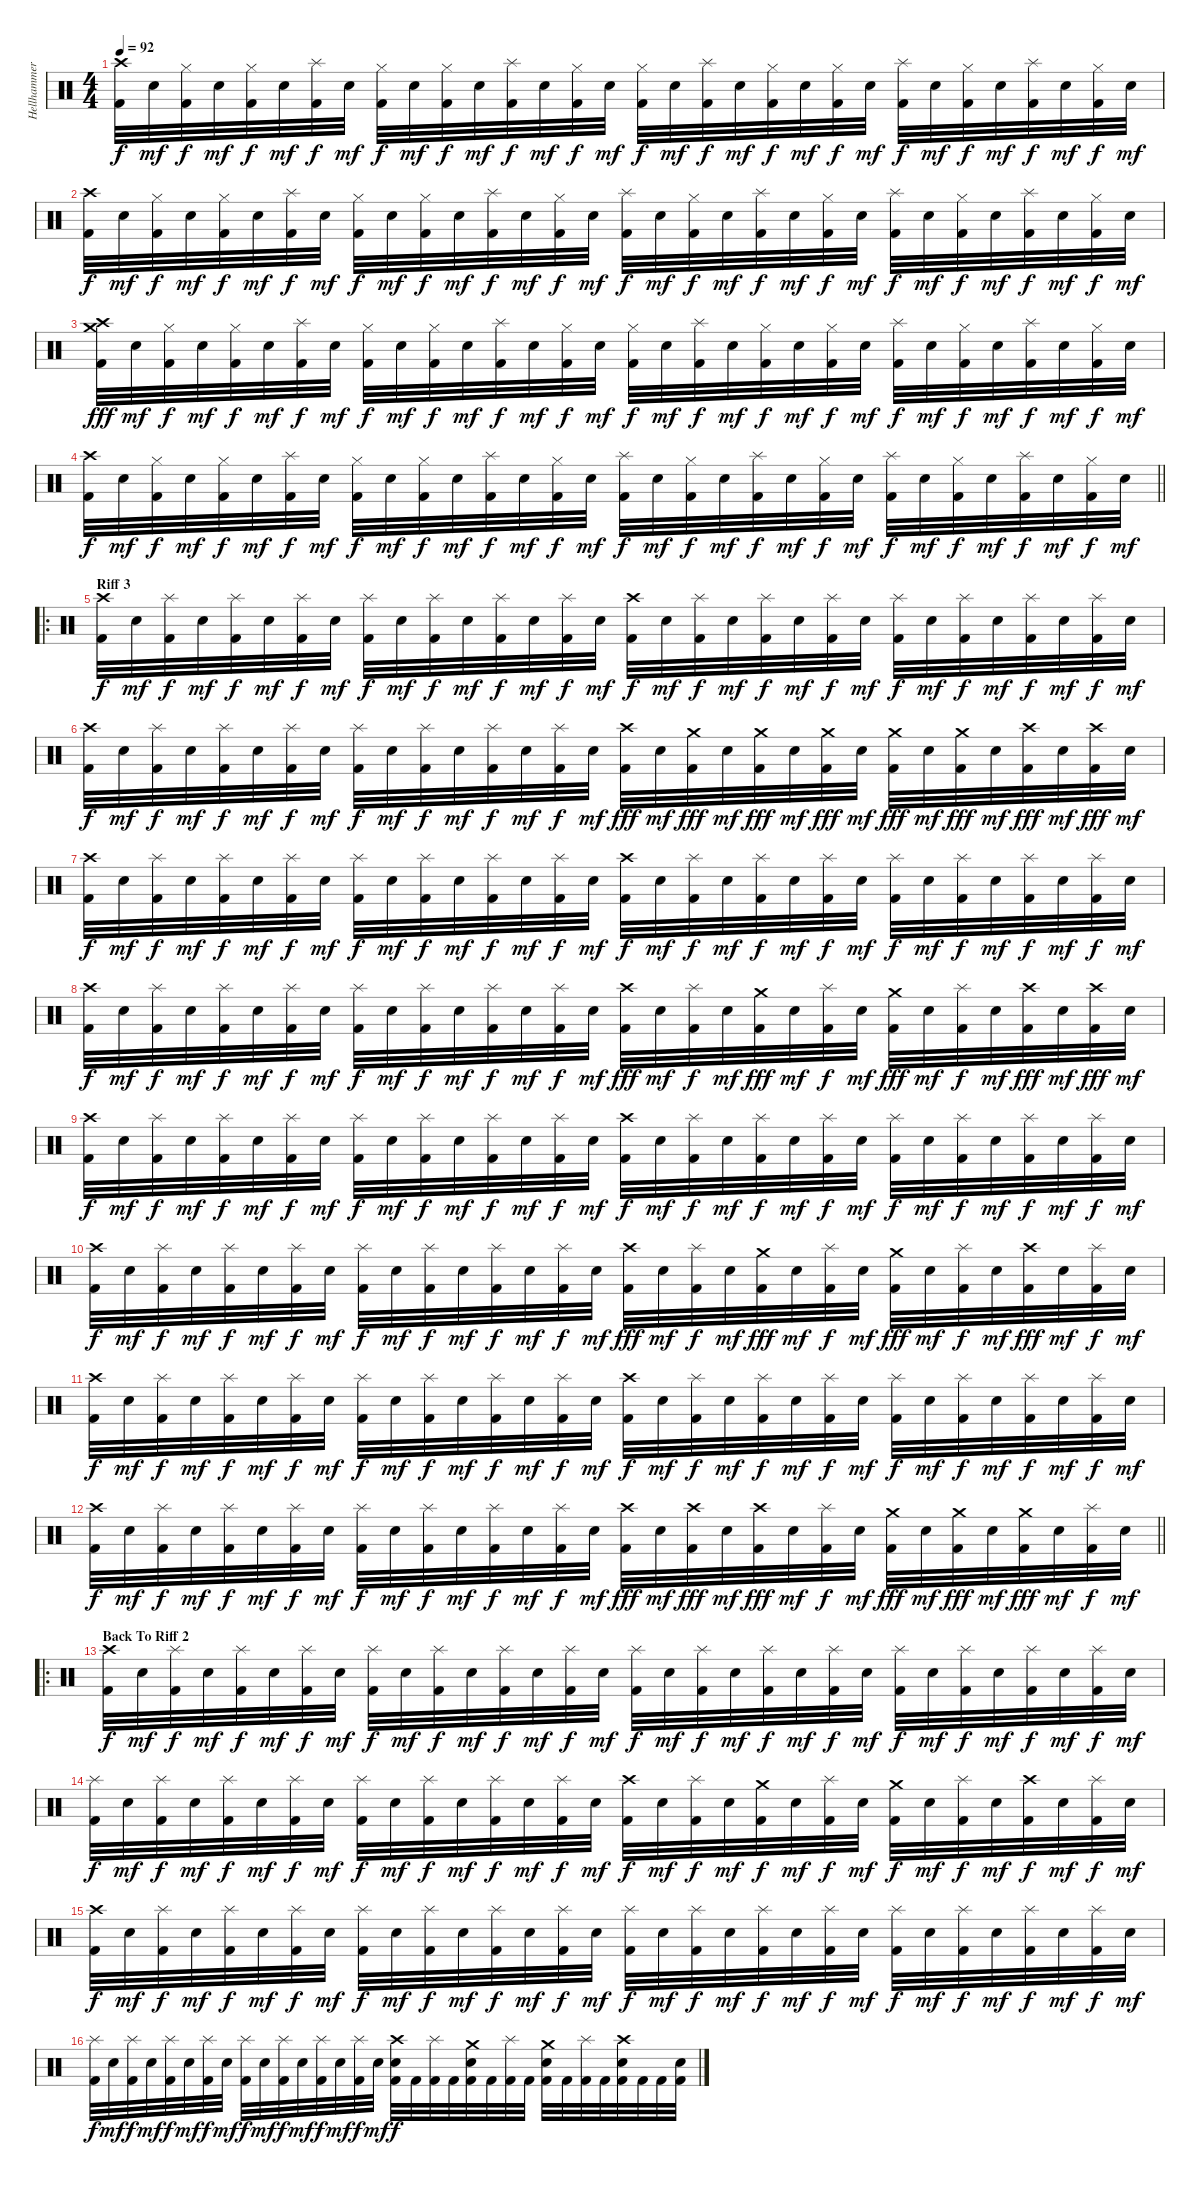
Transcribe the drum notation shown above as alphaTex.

\track ("Hellhammer" "Hellhammer") {instrument percussion}
\staff {score}
\articulation defaults
\ts (4 4)
\tempo 92
\clef neutral
\ks c
("Crash high (hit)" "Kick (hit) 2").32{dy f} "Electric Snare (hit)".32{dy mf} ("Hi-Hat (closed)" "Kick (hit) 2").32{dy f} "Electric Snare (hit)".32{dy mf} ("Hi-Hat (closed)" "Kick (hit) 2").32{dy f} "Electric Snare (hit)".32{dy mf} ("Splash (hit)" "Kick (hit) 2").32{dy f} "Electric Snare (hit)".32{dy mf} ("Hi-Hat (closed)" "Kick (hit) 2").32{dy f} "Electric Snare (hit)".32{dy mf} ("Hi-Hat (closed)" "Kick (hit) 2").32{dy f} "Electric Snare (hit)".32{dy mf} ("Splash (hit)" "Kick (hit) 2").32{dy f} "Electric Snare (hit)".32{dy mf} ("Hi-Hat (closed)" "Kick (hit) 2").32{dy f} "Electric Snare (hit)".32{dy mf} ("Hi-Hat (closed)" "Kick (hit) 2").32{dy f} "Electric Snare (hit)".32{dy mf} ("Splash (hit)" "Kick (hit) 2").32{dy f} "Electric Snare (hit)".32{dy mf} ("Hi-Hat (closed)" "Kick (hit) 2").32{dy f} "Electric Snare (hit)".32{dy mf} ("Hi-Hat (closed)" "Kick (hit) 2").32{dy f} "Electric Snare (hit)".32{dy mf} ("Splash (hit)" "Kick (hit) 2").32{dy f} "Electric Snare (hit)".32{dy mf} ("Hi-Hat (closed)" "Kick (hit) 2").32{dy f} "Electric Snare (hit)".32{dy mf} ("Splash (hit)" "Kick (hit) 2").32{dy f} "Electric Snare (hit)".32{dy mf} ("Hi-Hat (closed)" "Kick (hit) 2").32{dy f} "Electric Snare (hit)".32{dy mf} |
("Crash high (hit)" "Kick (hit) 2").32{dy f} "Electric Snare (hit)".32{dy mf} ("Hi-Hat (closed)" "Kick (hit) 2").32{dy f} "Electric Snare (hit)".32{dy mf} ("Hi-Hat (closed)" "Kick (hit) 2").32{dy f} "Electric Snare (hit)".32{dy mf} ("Splash (hit)" "Kick (hit) 2").32{dy f} "Electric Snare (hit)".32{dy mf} ("Hi-Hat (closed)" "Kick (hit) 2").32{dy f} "Electric Snare (hit)".32{dy mf} ("Hi-Hat (closed)" "Kick (hit) 2").32{dy f} "Electric Snare (hit)".32{dy mf} ("Splash (hit)" "Kick (hit) 2").32{dy f} "Electric Snare (hit)".32{dy mf} ("Hi-Hat (closed)" "Kick (hit) 2").32{dy f} "Electric Snare (hit)".32{dy mf} ("Splash (hit)" "Kick (hit) 2").32{dy f} "Electric Snare (hit)".32{dy mf} ("Hi-Hat (closed)" "Kick (hit) 2").32{dy f} "Electric Snare (hit)".32{dy mf} ("Splash (hit)" "Kick (hit) 2").32{dy f} "Electric Snare (hit)".32{dy mf} ("Hi-Hat (closed)" "Kick (hit) 2").32{dy f} "Electric Snare (hit)".32{dy mf} ("Splash (hit)" "Kick (hit) 2").32{dy f} "Electric Snare (hit)".32{dy mf} ("Hi-Hat (closed)" "Kick (hit) 2").32{dy f} "Electric Snare (hit)".32{dy mf} ("Splash (hit)" "Kick (hit) 2").32{dy f} "Electric Snare (hit)".32{dy mf} ("Hi-Hat (closed)" "Kick (hit) 2").32{dy f} "Electric Snare (hit)".32{dy mf} |
("Crash high (hit)" "Crash medium (hit)" "Kick (hit) 2").32{dy fff} "Electric Snare (hit)".32{dy mf} ("Hi-Hat (closed)" "Kick (hit) 2").32{dy f} "Electric Snare (hit)".32{dy mf} ("Hi-Hat (closed)" "Kick (hit) 2").32{dy f} "Electric Snare (hit)".32{dy mf} ("Splash (hit)" "Kick (hit) 2").32{dy f} "Electric Snare (hit)".32{dy mf} ("Hi-Hat (closed)" "Kick (hit) 2").32{dy f} "Electric Snare (hit)".32{dy mf} ("Hi-Hat (closed)" "Kick (hit) 2").32{dy f} "Electric Snare (hit)".32{dy mf} ("Splash (hit)" "Kick (hit) 2").32{dy f} "Electric Snare (hit)".32{dy mf} ("Hi-Hat (closed)" "Kick (hit) 2").32{dy f} "Electric Snare (hit)".32{dy mf} ("Hi-Hat (closed)" "Kick (hit) 2").32{dy f} "Electric Snare (hit)".32{dy mf} ("Splash (hit)" "Kick (hit) 2").32{dy f} "Electric Snare (hit)".32{dy mf} ("Hi-Hat (closed)" "Kick (hit) 2").32{dy f} "Electric Snare (hit)".32{dy mf} ("Hi-Hat (closed)" "Kick (hit) 2").32{dy f} "Electric Snare (hit)".32{dy mf} ("Splash (hit)" "Kick (hit) 2").32{dy f} "Electric Snare (hit)".32{dy mf} ("Hi-Hat (closed)" "Kick (hit) 2").32{dy f} "Electric Snare (hit)".32{dy mf} ("Splash (hit)" "Kick (hit) 2").32{dy f} "Electric Snare (hit)".32{dy mf} ("Hi-Hat (closed)" "Kick (hit) 2").32{dy f} "Electric Snare (hit)".32{dy mf} |
\barLineRight lightlight
("Crash high (hit)" "Kick (hit) 2").32{dy f} "Electric Snare (hit)".32{dy mf} ("Hi-Hat (closed)" "Kick (hit) 2").32{dy f} "Electric Snare (hit)".32{dy mf} ("Hi-Hat (closed)" "Kick (hit) 2").32{dy f} "Electric Snare (hit)".32{dy mf} ("Splash (hit)" "Kick (hit) 2").32{dy f} "Electric Snare (hit)".32{dy mf} ("Hi-Hat (closed)" "Kick (hit) 2").32{dy f} "Electric Snare (hit)".32{dy mf} ("Hi-Hat (closed)" "Kick (hit) 2").32{dy f} "Electric Snare (hit)".32{dy mf} ("Splash (hit)" "Kick (hit) 2").32{dy f} "Electric Snare (hit)".32{dy mf} ("Hi-Hat (closed)" "Kick (hit) 2").32{dy f} "Electric Snare (hit)".32{dy mf} ("Splash (hit)" "Kick (hit) 2").32{dy f} "Electric Snare (hit)".32{dy mf} ("Hi-Hat (closed)" "Kick (hit) 2").32{dy f} "Electric Snare (hit)".32{dy mf} ("Splash (hit)" "Kick (hit) 2").32{dy f} "Electric Snare (hit)".32{dy mf} ("Hi-Hat (closed)" "Kick (hit) 2").32{dy f} "Electric Snare (hit)".32{dy mf} ("Splash (hit)" "Kick (hit) 2").32{dy f} "Electric Snare (hit)".32{dy mf} ("Hi-Hat (closed)" "Kick (hit) 2").32{dy f} "Electric Snare (hit)".32{dy mf} ("Splash (hit)" "Kick (hit) 2").32{dy f} "Electric Snare (hit)".32{dy mf} ("Hi-Hat (closed)" "Kick (hit) 2").32{dy f} "Electric Snare (hit)".32{dy mf} |
\ro
\section ("" "Riff 3")
("Crash high (hit)" "Kick (hit) 2").32{dy f} "Electric Snare (hit)".32{dy mf} ("Splash (hit)" "Kick (hit) 2").32{dy f} "Electric Snare (hit)".32{dy mf} ("Splash (hit)" "Kick (hit) 2").32{dy f} "Electric Snare (hit)".32{dy mf} ("Splash (hit)" "Kick (hit) 2").32{dy f} "Electric Snare (hit)".32{dy mf} ("Splash (hit)" "Kick (hit) 2").32{dy f} "Electric Snare (hit)".32{dy mf} ("Splash (hit)" "Kick (hit) 2").32{dy f} "Electric Snare (hit)".32{dy mf} ("Splash (hit)" "Kick (hit) 2").32{dy f} "Electric Snare (hit)".32{dy mf} ("Splash (hit)" "Kick (hit) 2").32{dy f} "Electric Snare (hit)".32{dy mf} ("Crash high (hit)" "Kick (hit) 2").32{dy f} "Electric Snare (hit)".32{dy mf} ("Splash (hit)" "Kick (hit) 2").32{dy f} "Electric Snare (hit)".32{dy mf} ("Splash (hit)" "Kick (hit) 2").32{dy f} "Electric Snare (hit)".32{dy mf} ("Splash (hit)" "Kick (hit) 2").32{dy f} "Electric Snare (hit)".32{dy mf} ("Splash (hit)" "Kick (hit) 2").32{dy f} "Electric Snare (hit)".32{dy mf} ("Splash (hit)" "Kick (hit) 2").32{dy f} "Electric Snare (hit)".32{dy mf} ("Splash (hit)" "Kick (hit) 2").32{dy f} "Electric Snare (hit)".32{dy mf} ("Splash (hit)" "Kick (hit) 2").32{dy f} "Electric Snare (hit)".32{dy mf} |
("Crash high (hit)" "Kick (hit) 2").32{dy f} "Electric Snare (hit)".32{dy mf} ("Splash (hit)" "Kick (hit) 2").32{dy f} "Electric Snare (hit)".32{dy mf} ("Splash (hit)" "Kick (hit) 2").32{dy f} "Electric Snare (hit)".32{dy mf} ("Splash (hit)" "Kick (hit) 2").32{dy f} "Electric Snare (hit)".32{dy mf} ("Splash (hit)" "Kick (hit) 2").32{dy f} "Electric Snare (hit)".32{dy mf} ("Splash (hit)" "Kick (hit) 2").32{dy f} "Electric Snare (hit)".32{dy mf} ("Splash (hit)" "Kick (hit) 2").32{dy f} "Electric Snare (hit)".32{dy mf} ("Splash (hit)" "Kick (hit) 2").32{dy f} "Electric Snare (hit)".32{dy mf} ("Crash high (hit)" "Kick (hit) 2").32{dy fff} "Electric Snare (hit)".32{dy mf} ("Crash medium (hit)" "Kick (hit) 2").32{dy fff} "Electric Snare (hit)".32{dy mf} ("Crash medium (hit)" "Kick (hit) 2").32{dy fff} "Electric Snare (hit)".32{dy mf} ("Crash medium (hit)" "Kick (hit) 2").32{dy fff} "Electric Snare (hit)".32{dy mf} ("Crash medium (hit)" "Kick (hit) 2").32{dy fff} "Electric Snare (hit)".32{dy mf} ("Crash medium (hit)" "Kick (hit) 2").32{dy fff} "Electric Snare (hit)".32{dy mf} ("Crash high (hit)" "Kick (hit) 2").32{dy fff} "Electric Snare (hit)".32{dy mf} ("Crash high (hit)" "Kick (hit) 2").32{dy fff} "Electric Snare (hit)".32{dy mf} |
("Crash high (hit)" "Kick (hit) 2").32{dy f} "Electric Snare (hit)".32{dy mf} ("Splash (hit)" "Kick (hit) 2").32{dy f} "Electric Snare (hit)".32{dy mf} ("Splash (hit)" "Kick (hit) 2").32{dy f} "Electric Snare (hit)".32{dy mf} ("Splash (hit)" "Kick (hit) 2").32{dy f} "Electric Snare (hit)".32{dy mf} ("Splash (hit)" "Kick (hit) 2").32{dy f} "Electric Snare (hit)".32{dy mf} ("Splash (hit)" "Kick (hit) 2").32{dy f} "Electric Snare (hit)".32{dy mf} ("Splash (hit)" "Kick (hit) 2").32{dy f} "Electric Snare (hit)".32{dy mf} ("Splash (hit)" "Kick (hit) 2").32{dy f} "Electric Snare (hit)".32{dy mf} ("Crash high (hit)" "Kick (hit) 2").32{dy f} "Electric Snare (hit)".32{dy mf} ("Splash (hit)" "Kick (hit) 2").32{dy f} "Electric Snare (hit)".32{dy mf} ("Splash (hit)" "Kick (hit) 2").32{dy f} "Electric Snare (hit)".32{dy mf} ("Splash (hit)" "Kick (hit) 2").32{dy f} "Electric Snare (hit)".32{dy mf} ("Splash (hit)" "Kick (hit) 2").32{dy f} "Electric Snare (hit)".32{dy mf} ("Splash (hit)" "Kick (hit) 2").32{dy f} "Electric Snare (hit)".32{dy mf} ("Splash (hit)" "Kick (hit) 2").32{dy f} "Electric Snare (hit)".32{dy mf} ("Splash (hit)" "Kick (hit) 2").32{dy f} "Electric Snare (hit)".32{dy mf} |
("Crash high (hit)" "Kick (hit) 2").32{dy f} "Electric Snare (hit)".32{dy mf} ("Splash (hit)" "Kick (hit) 2").32{dy f} "Electric Snare (hit)".32{dy mf} ("Splash (hit)" "Kick (hit) 2").32{dy f} "Electric Snare (hit)".32{dy mf} ("Splash (hit)" "Kick (hit) 2").32{dy f} "Electric Snare (hit)".32{dy mf} ("Splash (hit)" "Kick (hit) 2").32{dy f} "Electric Snare (hit)".32{dy mf} ("Splash (hit)" "Kick (hit) 2").32{dy f} "Electric Snare (hit)".32{dy mf} ("Splash (hit)" "Kick (hit) 2").32{dy f} "Electric Snare (hit)".32{dy mf} ("Splash (hit)" "Kick (hit) 2").32{dy f} "Electric Snare (hit)".32{dy mf} ("Crash high (hit)" "Kick (hit) 2").32{dy fff} "Electric Snare (hit)".32{dy mf} ("Splash (hit)" "Kick (hit) 2").32{dy f} "Electric Snare (hit)".32{dy mf} ("Crash medium (hit)" "Kick (hit) 2").32{dy fff} "Electric Snare (hit)".32{dy mf} ("Splash (hit)" "Kick (hit) 2").32{dy f} "Electric Snare (hit)".32{dy mf} ("Crash medium (hit)" "Kick (hit) 2").32{dy fff} "Electric Snare (hit)".32{dy mf} ("Splash (hit)" "Kick (hit) 2").32{dy f} "Electric Snare (hit)".32{dy mf} ("Crash high (hit)" "Kick (hit) 2").32{dy fff} "Electric Snare (hit)".32{dy mf} ("Crash high (hit)" "Kick (hit) 2").32{dy fff} "Electric Snare (hit)".32{dy mf} |
("Crash high (hit)" "Kick (hit) 2").32{dy f} "Electric Snare (hit)".32{dy mf} ("Splash (hit)" "Kick (hit) 2").32{dy f} "Electric Snare (hit)".32{dy mf} ("Splash (hit)" "Kick (hit) 2").32{dy f} "Electric Snare (hit)".32{dy mf} ("Splash (hit)" "Kick (hit) 2").32{dy f} "Electric Snare (hit)".32{dy mf} ("Splash (hit)" "Kick (hit) 2").32{dy f} "Electric Snare (hit)".32{dy mf} ("Splash (hit)" "Kick (hit) 2").32{dy f} "Electric Snare (hit)".32{dy mf} ("Splash (hit)" "Kick (hit) 2").32{dy f} "Electric Snare (hit)".32{dy mf} ("Splash (hit)" "Kick (hit) 2").32{dy f} "Electric Snare (hit)".32{dy mf} ("Crash high (hit)" "Kick (hit) 2").32{dy f} "Electric Snare (hit)".32{dy mf} ("Splash (hit)" "Kick (hit) 2").32{dy f} "Electric Snare (hit)".32{dy mf} ("Splash (hit)" "Kick (hit) 2").32{dy f} "Electric Snare (hit)".32{dy mf} ("Splash (hit)" "Kick (hit) 2").32{dy f} "Electric Snare (hit)".32{dy mf} ("Splash (hit)" "Kick (hit) 2").32{dy f} "Electric Snare (hit)".32{dy mf} ("Splash (hit)" "Kick (hit) 2").32{dy f} "Electric Snare (hit)".32{dy mf} ("Splash (hit)" "Kick (hit) 2").32{dy f} "Electric Snare (hit)".32{dy mf} ("Splash (hit)" "Kick (hit) 2").32{dy f} "Electric Snare (hit)".32{dy mf} |
("Crash high (hit)" "Kick (hit) 2").32{dy f} "Electric Snare (hit)".32{dy mf} ("Splash (hit)" "Kick (hit) 2").32{dy f} "Electric Snare (hit)".32{dy mf} ("Splash (hit)" "Kick (hit) 2").32{dy f} "Electric Snare (hit)".32{dy mf} ("Splash (hit)" "Kick (hit) 2").32{dy f} "Electric Snare (hit)".32{dy mf} ("Splash (hit)" "Kick (hit) 2").32{dy f} "Electric Snare (hit)".32{dy mf} ("Splash (hit)" "Kick (hit) 2").32{dy f} "Electric Snare (hit)".32{dy mf} ("Splash (hit)" "Kick (hit) 2").32{dy f} "Electric Snare (hit)".32{dy mf} ("Splash (hit)" "Kick (hit) 2").32{dy f} "Electric Snare (hit)".32{dy mf} ("Crash high (hit)" "Kick (hit) 2").32{dy fff} "Electric Snare (hit)".32{dy mf} ("Splash (hit)" "Kick (hit) 2").32{dy f} "Electric Snare (hit)".32{dy mf} ("Crash medium (hit)" "Kick (hit) 2").32{dy fff} "Electric Snare (hit)".32{dy mf} ("Splash (hit)" "Kick (hit) 2").32{dy f} "Electric Snare (hit)".32{dy mf} ("Crash medium (hit)" "Kick (hit) 2").32{dy fff} "Electric Snare (hit)".32{dy mf} ("Splash (hit)" "Kick (hit) 2").32{dy f} "Electric Snare (hit)".32{dy mf} ("Crash high (hit)" "Kick (hit) 2").32{dy fff} "Electric Snare (hit)".32{dy mf} ("Splash (hit)" "Kick (hit) 2").32{dy f} "Electric Snare (hit)".32{dy mf} |
("Crash high (hit)" "Kick (hit) 2").32{dy f} "Electric Snare (hit)".32{dy mf} ("Splash (hit)" "Kick (hit) 2").32{dy f} "Electric Snare (hit)".32{dy mf} ("Splash (hit)" "Kick (hit) 2").32{dy f} "Electric Snare (hit)".32{dy mf} ("Splash (hit)" "Kick (hit) 2").32{dy f} "Electric Snare (hit)".32{dy mf} ("Splash (hit)" "Kick (hit) 2").32{dy f} "Electric Snare (hit)".32{dy mf} ("Splash (hit)" "Kick (hit) 2").32{dy f} "Electric Snare (hit)".32{dy mf} ("Splash (hit)" "Kick (hit) 2").32{dy f} "Electric Snare (hit)".32{dy mf} ("Splash (hit)" "Kick (hit) 2").32{dy f} "Electric Snare (hit)".32{dy mf} ("Crash high (hit)" "Kick (hit) 2").32{dy f} "Electric Snare (hit)".32{dy mf} ("Splash (hit)" "Kick (hit) 2").32{dy f} "Electric Snare (hit)".32{dy mf} ("Splash (hit)" "Kick (hit) 2").32{dy f} "Electric Snare (hit)".32{dy mf} ("Splash (hit)" "Kick (hit) 2").32{dy f} "Electric Snare (hit)".32{dy mf} ("Splash (hit)" "Kick (hit) 2").32{dy f} "Electric Snare (hit)".32{dy mf} ("Splash (hit)" "Kick (hit) 2").32{dy f} "Electric Snare (hit)".32{dy mf} ("Splash (hit)" "Kick (hit) 2").32{dy f} "Electric Snare (hit)".32{dy mf} ("Splash (hit)" "Kick (hit) 2").32{dy f} "Electric Snare (hit)".32{dy mf} |
\barLineRight lightlight
("Crash high (hit)" "Kick (hit) 2").32{dy f} "Electric Snare (hit)".32{dy mf} ("Splash (hit)" "Kick (hit) 2").32{dy f} "Electric Snare (hit)".32{dy mf} ("Splash (hit)" "Kick (hit) 2").32{dy f} "Electric Snare (hit)".32{dy mf} ("Splash (hit)" "Kick (hit) 2").32{dy f} "Electric Snare (hit)".32{dy mf} ("Splash (hit)" "Kick (hit) 2").32{dy f} "Electric Snare (hit)".32{dy mf} ("Splash (hit)" "Kick (hit) 2").32{dy f} "Electric Snare (hit)".32{dy mf} ("Splash (hit)" "Kick (hit) 2").32{dy f} "Electric Snare (hit)".32{dy mf} ("Splash (hit)" "Kick (hit) 2").32{dy f} "Electric Snare (hit)".32{dy mf} ("Crash high (hit)" "Kick (hit) 2").32{dy fff} "Electric Snare (hit)".32{dy mf} ("Crash high (hit)" "Kick (hit) 2").32{dy fff} "Electric Snare (hit)".32{dy mf} ("Crash high (hit)" "Kick (hit) 2").32{dy fff} "Electric Snare (hit)".32{dy mf} ("Splash (hit)" "Kick (hit) 2").32{dy f} "Electric Snare (hit)".32{dy mf} ("Crash medium (hit)" "Kick (hit) 2").32{dy fff} "Electric Snare (hit)".32{dy mf} ("Crash medium (hit)" "Kick (hit) 2").32{dy fff} "Electric Snare (hit)".32{dy mf} ("Crash medium (hit)" "Kick (hit) 2").32{dy fff} "Electric Snare (hit)".32{dy mf} ("Splash (hit)" "Kick (hit) 2").32{dy f} "Electric Snare (hit)".32{dy mf} |
\ro
\section ("" "Back To Riff 2")
("Crash high (hit)" "Kick (hit) 2").32{dy f} "Electric Snare (hit)".32{dy mf} ("Splash (hit)" "Kick (hit) 2").32{dy f} "Electric Snare (hit)".32{dy mf} ("Splash (hit)" "Kick (hit) 2").32{dy f} "Electric Snare (hit)".32{dy mf} ("Splash (hit)" "Kick (hit) 2").32{dy f} "Electric Snare (hit)".32{dy mf} ("Splash (hit)" "Kick (hit) 2").32{dy f} "Electric Snare (hit)".32{dy mf} ("Splash (hit)" "Kick (hit) 2").32{dy f} "Electric Snare (hit)".32{dy mf} ("Splash (hit)" "Kick (hit) 2").32{dy f} "Electric Snare (hit)".32{dy mf} ("Splash (hit)" "Kick (hit) 2").32{dy f} "Electric Snare (hit)".32{dy mf} ("Splash (hit)" "Kick (hit) 2").32{dy f} "Electric Snare (hit)".32{dy mf} ("Splash (hit)" "Kick (hit) 2").32{dy f} "Electric Snare (hit)".32{dy mf} ("Splash (hit)" "Kick (hit) 2").32{dy f} "Electric Snare (hit)".32{dy mf} ("Splash (hit)" "Kick (hit) 2").32{dy f} "Electric Snare (hit)".32{dy mf} ("Splash (hit)" "Kick (hit) 2").32{dy f} "Electric Snare (hit)".32{dy mf} ("Splash (hit)" "Kick (hit) 2").32{dy f} "Electric Snare (hit)".32{dy mf} ("Splash (hit)" "Kick (hit) 2").32{dy f} "Electric Snare (hit)".32{dy mf} ("Splash (hit)" "Kick (hit) 2").32{dy f} "Electric Snare (hit)".32{dy mf} |
("Splash (hit)" "Kick (hit) 2").32{dy f} "Electric Snare (hit)".32{dy mf} ("Splash (hit)" "Kick (hit) 2").32{dy f} "Electric Snare (hit)".32{dy mf} ("Splash (hit)" "Kick (hit) 2").32{dy f} "Electric Snare (hit)".32{dy mf} ("Splash (hit)" "Kick (hit) 2").32{dy f} "Electric Snare (hit)".32{dy mf} ("Splash (hit)" "Kick (hit) 2").32{dy f} "Electric Snare (hit)".32{dy mf} ("Splash (hit)" "Kick (hit) 2").32{dy f} "Electric Snare (hit)".32{dy mf} ("Splash (hit)" "Kick (hit) 2").32{dy f} "Electric Snare (hit)".32{dy mf} ("Splash (hit)" "Kick (hit) 2").32{dy f} "Electric Snare (hit)".32{dy mf} ("Crash high (hit)" "Kick (hit) 2").32{dy f} "Electric Snare (hit)".32{dy mf} ("Splash (hit)" "Kick (hit) 2").32{dy f} "Electric Snare (hit)".32{dy mf} ("Crash medium (hit)" "Kick (hit) 2").32{dy f} "Electric Snare (hit)".32{dy mf} ("Splash (hit)" "Kick (hit) 2").32{dy f} "Electric Snare (hit)".32{dy mf} ("Crash medium (hit)" "Kick (hit) 2").32{dy f} "Electric Snare (hit)".32{dy mf} ("Splash (hit)" "Kick (hit) 2").32{dy f} "Electric Snare (hit)".32{dy mf} ("Crash high (hit)" "Kick (hit) 2").32{dy f} "Electric Snare (hit)".32{dy mf} ("Splash (hit)" "Kick (hit) 2").32{dy f} "Electric Snare (hit)".32{dy mf} |
("Crash high (hit)" "Kick (hit) 2").32{dy f} "Electric Snare (hit)".32{dy mf} ("Splash (hit)" "Kick (hit) 2").32{dy f} "Electric Snare (hit)".32{dy mf} ("Splash (hit)" "Kick (hit) 2").32{dy f} "Electric Snare (hit)".32{dy mf} ("Splash (hit)" "Kick (hit) 2").32{dy f} "Electric Snare (hit)".32{dy mf} ("Splash (hit)" "Kick (hit) 2").32{dy f} "Electric Snare (hit)".32{dy mf} ("Splash (hit)" "Kick (hit) 2").32{dy f} "Electric Snare (hit)".32{dy mf} ("Splash (hit)" "Kick (hit) 2").32{dy f} "Electric Snare (hit)".32{dy mf} ("Splash (hit)" "Kick (hit) 2").32{dy f} "Electric Snare (hit)".32{dy mf} ("Splash (hit)" "Kick (hit) 2").32{dy f} "Electric Snare (hit)".32{dy mf} ("Splash (hit)" "Kick (hit) 2").32{dy f} "Electric Snare (hit)".32{dy mf} ("Splash (hit)" "Kick (hit) 2").32{dy f} "Electric Snare (hit)".32{dy mf} ("Splash (hit)" "Kick (hit) 2").32{dy f} "Electric Snare (hit)".32{dy mf} ("Splash (hit)" "Kick (hit) 2").32{dy f} "Electric Snare (hit)".32{dy mf} ("Splash (hit)" "Kick (hit) 2").32{dy f} "Electric Snare (hit)".32{dy mf} ("Splash (hit)" "Kick (hit) 2").32{dy f} "Electric Snare (hit)".32{dy mf} ("Splash (hit)" "Kick (hit) 2").32{dy f} "Electric Snare (hit)".32{dy mf} |
("Splash (hit)" "Kick (hit) 2").32{dy f} "Electric Snare (hit)".32{dy mf} ("Splash (hit)" "Kick (hit) 2").32{dy f} "Electric Snare (hit)".32{dy mf} ("Splash (hit)" "Kick (hit) 2").32{dy f} "Electric Snare (hit)".32{dy mf} ("Splash (hit)" "Kick (hit) 2").32{dy f} "Electric Snare (hit)".32{dy mf} ("Splash (hit)" "Kick (hit) 2").32{dy f} "Electric Snare (hit)".32{dy mf} ("Splash (hit)" "Kick (hit) 2").32{dy f} "Electric Snare (hit)".32{dy mf} ("Splash (hit)" "Kick (hit) 2").32{dy f} "Electric Snare (hit)".32{dy mf} ("Splash (hit)" "Kick (hit) 2").32{dy f} "Electric Snare (hit)".32{dy mf} ("Crash high (hit)" "Electric Snare (hit)" "Kick (hit) 2").32{dy f} "Kick (hit) 2".32 ("Splash (hit)" "Kick (hit) 2").32 "Kick (hit) 2".32 ("Crash medium (hit)" "Electric Snare (hit)" "Kick (hit) 2").32 "Kick (hit) 2".32 ("Splash (hit)" "Kick (hit) 2").32 "Kick (hit) 2".32 ("Crash medium (hit)" "Electric Snare (hit)" "Kick (hit) 2").32 "Kick (hit) 2".32 ("Splash (hit)" "Kick (hit) 2").32 "Kick (hit) 2".32 ("Crash high (hit)" "Electric Snare (hit)" "Kick (hit) 2").32 "Kick (hit) 2".32 "Kick (hit) 2".32 ("Electric Snare (hit)" "Kick (hit) 2").32
